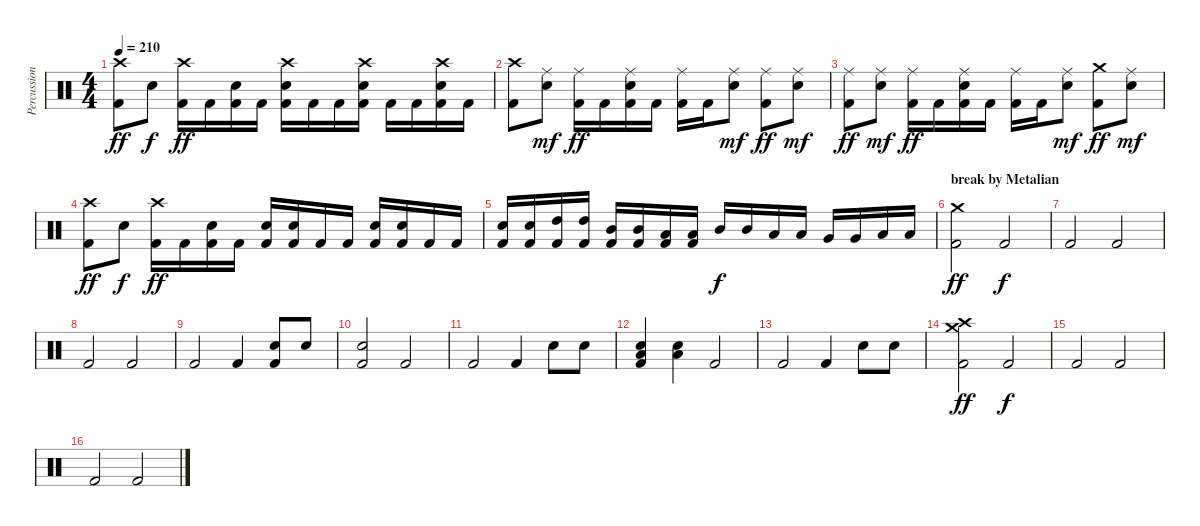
\track ("Percussion" "Percussion") {instrument percussion}
\staff {score}
\articulation defaults
\ts (4 4)
\tempo 210
\clef neutral
\ks c
("Crash high (hit)" "Kick (hit) 2").8{dy ff} "Snare (hit) 2".8{dy f} ("Crash high (hit)" "Kick (hit) 2").16{dy ff} "Kick (hit) 2".16 ("Snare (hit) 2" "Kick (hit) 2").16 "Kick (hit) 2".16 ("Crash high (hit)" "Snare (hit) 2" "Kick (hit) 2").16 "Kick (hit) 2".16 "Kick (hit) 2".16 ("Crash high (hit)" "Snare (hit) 2" "Kick (hit) 2").16 "Kick (hit) 2".16 "Kick (hit) 2".16 ("Crash high (hit)" "Snare (hit) 2" "Kick (hit) 2").16 "Kick (hit) 2".16 |
("Crash high (hit)" "Kick (hit) 2").8 ("Ride (middle)" "Snare (hit) 2").8{dy mf} ("Ride (middle)" "Kick (hit) 2").16{dy ff} "Kick (hit) 2".16 ("Ride (middle)" "Snare (hit) 2" "Kick (hit) 2").16 "Kick (hit) 2".16 ("Ride (middle)" "Kick (hit) 2").16 "Kick (hit) 2".16 ("Ride (middle)" "Snare (hit) 2").8{dy mf} ("Ride (middle)" "Kick (hit) 2").8{dy ff} ("Ride (middle)" "Snare (hit) 2").8{dy mf} |
("Ride (middle)" "Kick (hit) 2").8{dy ff} ("Ride (middle)" "Snare (hit) 2").8{dy mf} ("Ride (middle)" "Kick (hit) 2").16{dy ff} "Kick (hit) 2".16 ("Ride (middle)" "Snare (hit) 2" "Kick (hit) 2").16 "Kick (hit) 2".16 ("Ride (middle)" "Kick (hit) 2").16 "Kick (hit) 2".16 ("Ride (middle)" "Snare (hit) 2").8{dy mf} ("Crash medium (hit)" "Kick (hit) 2").8{dy ff} ("Ride (middle)" "Snare (hit) 2").8{dy mf} |
("Crash high (hit)" "Kick (hit) 2").8{dy ff} "Snare (hit) 2".8{dy f} ("Crash high (hit)" "Kick (hit) 2").16{dy ff} "Kick (hit) 2".16 ("Snare (hit) 2" "Kick (hit) 2").16 "Kick (hit) 2".16 ("Snare (hit) 2" "Kick (hit) 2").16 ("Snare (hit) 2" "Kick (hit) 2").16 "Kick (hit) 2".16 "Kick (hit) 2".16 ("Snare (hit) 2" "Kick (hit) 2").16 ("Snare (hit) 2" "Kick (hit) 2").16 "Kick (hit) 2".16 "Kick (hit) 2".16 |
("Snare (hit) 2" "Kick (hit) 2").16 ("Snare (hit) 2" "Kick (hit) 2").16 ("High Tom (hit)" "Kick (hit) 2").16 ("High Tom (hit)" "Kick (hit) 2").16 ("Mid Tom (hit)" "Kick (hit) 2").16 ("Mid Tom (hit)" "Kick (hit) 2").16 ("Low Tom (hit)" "Kick (hit) 2").16 ("Low Tom (hit)" "Kick (hit) 2").16 "Mid Tom (hit)".16{dy f} "Mid Tom (hit)".16 "Low Tom (hit)".16 "Low Tom (hit)".16 "Very Low Tom (hit)".16 "Very Low Tom (hit)".16 "Low Floor Tom (hit)".16 "Low Floor Tom (hit)".16 |
\section ("" "break by Metalian")
("Crash medium (hit)" "Kick (hit) 2").2{dy ff} "Kick (hit) 2".2{dy f} |
"Kick (hit) 2".2 "Kick (hit) 2".2 |
"Kick (hit) 2".2 "Kick (hit) 2".2 |
"Kick (hit) 2".2 "Kick (hit) 2".4 ("Snare (hit) 2" "Kick (hit) 2").8 "Snare (hit) 2".8 |
("Snare (hit) 2" "Kick (hit) 2").2 "Kick (hit) 2".2 |
"Kick (hit) 2".2 "Kick (hit) 2".4 "Snare (hit) 2".8 "Snare (hit) 2".8 |
("Low Tom (hit)" "Snare (hit) 2" "Kick (hit) 2").4 ("Low Tom (hit)" "Snare (hit) 2").4 "Kick (hit) 2".2 |
"Kick (hit) 2".2 "Kick (hit) 2".4 "Snare (hit) 2".8 "Snare (hit) 2".8 |
("Crash medium (hit)" "Crash high (hit)" "Kick (hit) 2").2{dy ff} "Kick (hit) 2".2{dy f} |
"Kick (hit) 2".2 "Kick (hit) 2".2 |
"Kick (hit) 2".2 "Kick (hit) 2".2
